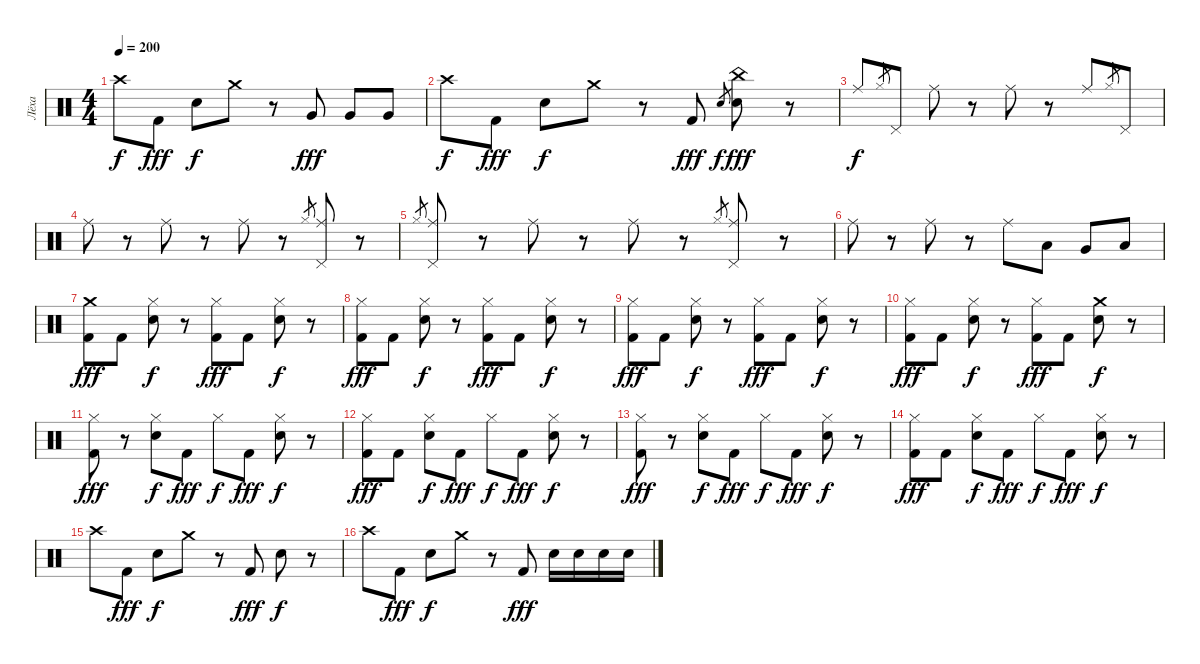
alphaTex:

\track ("Лёха" "Лёха") {instrument percussion}
\staff {score}
\articulation defaults
\ts (4 4)
\tempo 200
\clef neutral
\ks c "Crash high (hit)".8{dy f} "Kick (hit) 2".8{dy fff} "Electric Snare (hit)".8{dy f} "Crash medium (hit)".8
r.8 "Very Low Tom (hit)".8{dy fff} "Very Low Tom (hit)".8 "Very Low Tom (hit)".8 |
"Crash high (hit)".8{dy f} "Kick (hit) 2".8{dy fff} "Electric Snare (hit)".8{dy f} "Crash medium (hit)".8 r.8 "Kick (hit) 2".8{dy fff} "Electric Snare (hit)".8{gr dy f} ("China (hit)" "Electric Snare (hit)").8{dy fff} r.8 |
"Ride (middle)".8{dy f} "Hi-Hat (closed)".8{gr} "Pedal Hi-Hat (hit)".8 "Ride (middle)".8 r.8 "Ride (middle)".8 r.8 "Ride (middle)".8 "Hi-Hat (closed)".8{gr} "Pedal Hi-Hat (hit)".8 |
"Ride (middle)".8 r.8 "Ride (middle)".8 r.8 "Ride (middle)".8 r.8 "Hi-Hat (closed)".8{gr} ("Ride (middle)" "Pedal Hi-Hat (hit)").8 r.8 |
"Hi-Hat (closed)".8{gr} ("Ride (middle)" "Pedal Hi-Hat (hit)").8 r.8 "Ride (middle)".8 r.8 "Ride (middle)".8 r.8 "Hi-Hat (closed)".8{gr} ("Ride (middle)" "Pedal Hi-Hat (hit)").8 r.8 |
"Ride (middle)".8 r.8 "Ride (middle)".8 r.8 "Ride (middle)".8 "Low Tom (hit)".8 "Very Low Tom (hit)".8 "Low Floor Tom (hit)".8 |
("Crash medium (hit)" "Kick (hit) 2").8{dy fff} "Kick (hit) 2".8 ("Hi-Hat (closed)" "Electric Snare (hit)").8{dy f} r.8 ("Hi-Hat (closed)" "Kick (hit) 2").8{dy fff} "Kick (hit) 2".8 ("Hi-Hat (closed)" "Electric Snare (hit)").8{dy f} r.8 |
("Hi-Hat (closed)" "Kick (hit) 2").8{dy fff} "Kick (hit) 2".8 ("Hi-Hat (closed)" "Electric Snare (hit)").8{dy f} r.8 ("Hi-Hat (closed)" "Kick (hit) 2").8{dy fff} "Kick (hit) 2".8 ("Hi-Hat (closed)" "Electric Snare (hit)").8{dy f} r.8 |
("Hi-Hat (closed)" "Kick (hit) 2").8{dy fff} "Kick (hit) 2".8 ("Hi-Hat (closed)" "Electric Snare (hit)").8{dy f} r.8 ("Hi-Hat (closed)" "Kick (hit) 2").8{dy fff} "Kick (hit) 2".8 ("Hi-Hat (closed)" "Electric Snare (hit)").8{dy f} r.8 |
("Hi-Hat (closed)" "Kick (hit) 2").8{dy fff} "Kick (hit) 2".8 ("Hi-Hat (closed)" "Electric Snare (hit)").8{dy f} r.8 ("Hi-Hat (closed)" "Kick (hit) 2").8{dy fff} "Kick (hit) 2".8 ("Crash medium (hit)" "Electric Snare (hit)").8{dy f} r.8 |
("Hi-Hat (closed)" "Kick (hit) 2").8{dy fff} r.8 ("Hi-Hat (closed)" "Electric Snare (hit)").8{dy f} "Kick (hit) 2".8{dy fff} "Hi-Hat (closed)".8{dy f} "Kick (hit) 2".8{dy fff} ("Hi-Hat (closed)" "Electric Snare (hit)").8{dy f} r.8 |
("Hi-Hat (closed)" "Kick (hit) 2").8{dy fff} "Kick (hit) 2".8 ("Hi-Hat (closed)" "Electric Snare (hit)").8{dy f} "Kick (hit) 2".8{dy fff} "Hi-Hat (closed)".8{dy f} "Kick (hit) 2".8{dy fff} ("Hi-Hat (closed)" "Electric Snare (hit)").8{dy f} r.8 |
("Hi-Hat (closed)" "Kick (hit) 2").8{dy fff} r.8 ("Hi-Hat (closed)" "Electric Snare (hit)").8{dy f} "Kick (hit) 2".8{dy fff} "Hi-Hat (closed)".8{dy f} "Kick (hit) 2".8{dy fff} ("Hi-Hat (closed)" "Electric Snare (hit)").8{dy f} r.8 |
("Hi-Hat (closed)" "Kick (hit) 2").8{dy fff} "Kick (hit) 2".8 ("Hi-Hat (closed)" "Electric Snare (hit)").8{dy f} "Kick (hit) 2".8{dy fff} "Hi-Hat (closed)".8{dy f} "Kick (hit) 2".8{dy fff} ("Hi-Hat (closed)" "Electric Snare (hit)").8{dy f} r.8 |
"Crash high (hit)".8 "Kick (hit) 2".8{dy fff} "Electric Snare (hit)".8{dy f} "Crash medium (hit)".8 r.8 "Kick (hit) 2".8{dy fff} "Electric Snare (hit)".8{dy f} r.8 |
"Crash high (hit)".8 "Kick (hit) 2".8{dy fff} "Electric Snare (hit)".8{dy f} "Crash medium (hit)".8 r.8 "Kick (hit) 2".8{dy fff} "Electric Snare (hit)".16 "Electric Snare (hit)".16 "Electric Snare (hit)".16 "Electric Snare (hit)".16
